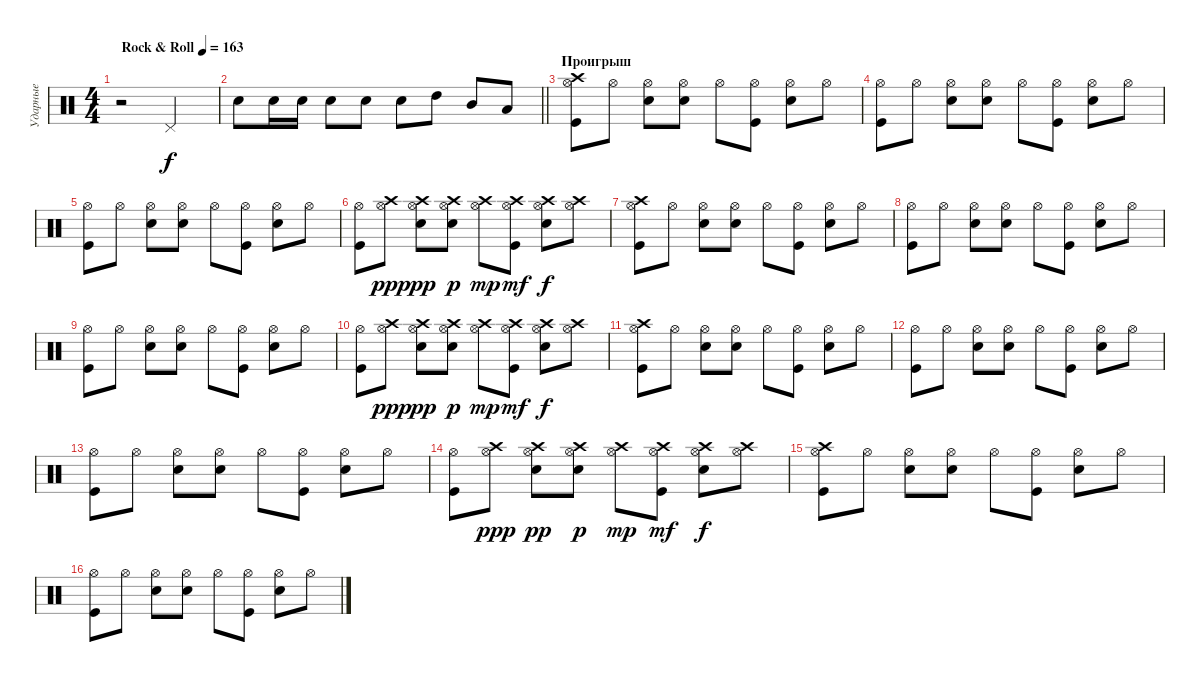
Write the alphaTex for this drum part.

\track ("Ударные" "Ударные") {instrument percussion}
\staff {score}
\articulation defaults
\ts (4 4)
\tempo (163 "Rock & Roll")
\clef neutral
\ks c
r.2{dy f} "Pedal Hi-Hat (hit)".2 |
\barLineRight lightlight "Snare (hit) 2".8 "Snare (hit) 2".16 "Snare (hit) 2".16 "Snare (hit) 2".8 "Snare (hit) 2".8 "Snare (hit) 2".8 "High Tom (hit)".8 "Mid Tom (hit)".8 "Low Tom (hit)".8
|
\section ("" "Проигрыш")
("Kick (hit)" "Hi-Hat (open)" "Crash high (hit)").8 "Hi-Hat (open)".8 ("Hi-Hat (open)" "Snare (hit) 2").8 ("Hi-Hat (open)" "Snare (hit) 2").8 "Hi-Hat (open)".8 ("Kick (hit)" "Hi-Hat (open)").8 ("Hi-Hat (open)" "Snare (hit) 2").8 "Hi-Hat (open)".8 |
("Kick (hit)" "Hi-Hat (open)").8 "Hi-Hat (open)".8 ("Hi-Hat (open)" "Snare (hit) 2").8 ("Hi-Hat (open)" "Snare (hit) 2").8 "Hi-Hat (open)".8 ("Kick (hit)" "Hi-Hat (open)").8 ("Hi-Hat (open)" "Snare (hit) 2").8 "Hi-Hat (open)".8 |
("Kick (hit)" "Hi-Hat (open)").8 "Hi-Hat (open)".8 ("Hi-Hat (open)" "Snare (hit) 2").8 ("Hi-Hat (open)" "Snare (hit) 2").8 "Hi-Hat (open)".8 ("Kick (hit)" "Hi-Hat (open)").8 ("Hi-Hat (open)" "Snare (hit) 2").8 "Hi-Hat (open)".8 |
("Kick (hit)" "Hi-Hat (open)").8 ("Hi-Hat (open)" "Crash high (hit)").8{dy ppp} ("Hi-Hat (open)" "Snare (hit) 2" "Crash high (hit)").8{dy pp} ("Hi-Hat (open)" "Snare (hit) 2" "Crash high (hit)").8{dy p} ("Hi-Hat (open)" "Crash high (hit)").8{dy mp} ("Kick (hit)" "Hi-Hat (open)" "Crash high (hit)").8{dy mf} ("Hi-Hat (open)" "Snare (hit) 2" "Crash high (hit)").8{dy f} ("Hi-Hat (open)" "Crash high (hit)").8 |
("Kick (hit)" "Hi-Hat (open)" "Crash high (hit)").8 "Hi-Hat (open)".8 ("Hi-Hat (open)" "Snare (hit) 2").8 ("Hi-Hat (open)" "Snare (hit) 2").8 "Hi-Hat (open)".8 ("Kick (hit)" "Hi-Hat (open)").8 ("Hi-Hat (open)" "Snare (hit) 2").8 "Hi-Hat (open)".8 |
("Kick (hit)" "Hi-Hat (open)").8 "Hi-Hat (open)".8 ("Hi-Hat (open)" "Snare (hit) 2").8 ("Hi-Hat (open)" "Snare (hit) 2").8 "Hi-Hat (open)".8 ("Kick (hit)" "Hi-Hat (open)").8 ("Hi-Hat (open)" "Snare (hit) 2").8 "Hi-Hat (open)".8 |
("Kick (hit)" "Hi-Hat (open)").8 "Hi-Hat (open)".8 ("Hi-Hat (open)" "Snare (hit) 2").8 ("Hi-Hat (open)" "Snare (hit) 2").8 "Hi-Hat (open)".8 ("Kick (hit)" "Hi-Hat (open)").8 ("Hi-Hat (open)" "Snare (hit) 2").8 "Hi-Hat (open)".8 |
("Kick (hit)" "Hi-Hat (open)").8 ("Hi-Hat (open)" "Crash high (hit)").8{dy ppp} ("Hi-Hat (open)" "Snare (hit) 2" "Crash high (hit)").8{dy pp} ("Hi-Hat (open)" "Snare (hit) 2" "Crash high (hit)").8{dy p} ("Hi-Hat (open)" "Crash high (hit)").8{dy mp} ("Kick (hit)" "Hi-Hat (open)" "Crash high (hit)").8{dy mf} ("Hi-Hat (open)" "Snare (hit) 2" "Crash high (hit)").8{dy f} ("Hi-Hat (open)" "Crash high (hit)").8 |
("Kick (hit)" "Hi-Hat (open)" "Crash high (hit)").8 "Hi-Hat (open)".8 ("Hi-Hat (open)" "Snare (hit) 2").8 ("Hi-Hat (open)" "Snare (hit) 2").8 "Hi-Hat (open)".8 ("Kick (hit)" "Hi-Hat (open)").8 ("Hi-Hat (open)" "Snare (hit) 2").8 "Hi-Hat (open)".8 |
("Kick (hit)" "Hi-Hat (open)").8 "Hi-Hat (open)".8 ("Hi-Hat (open)" "Snare (hit) 2").8 ("Hi-Hat (open)" "Snare (hit) 2").8 "Hi-Hat (open)".8 ("Kick (hit)" "Hi-Hat (open)").8 ("Hi-Hat (open)" "Snare (hit) 2").8 "Hi-Hat (open)".8 |
("Kick (hit)" "Hi-Hat (open)").8 "Hi-Hat (open)".8 ("Hi-Hat (open)" "Snare (hit) 2").8 ("Hi-Hat (open)" "Snare (hit) 2").8 "Hi-Hat (open)".8 ("Kick (hit)" "Hi-Hat (open)").8 ("Hi-Hat (open)" "Snare (hit) 2").8 "Hi-Hat (open)".8 |
("Kick (hit)" "Hi-Hat (open)").8 ("Hi-Hat (open)" "Crash high (hit)").8{dy ppp} ("Hi-Hat (open)" "Snare (hit) 2" "Crash high (hit)").8{dy pp} ("Hi-Hat (open)" "Snare (hit) 2" "Crash high (hit)").8{dy p} ("Hi-Hat (open)" "Crash high (hit)").8{dy mp} ("Kick (hit)" "Hi-Hat (open)" "Crash high (hit)").8{dy mf} ("Hi-Hat (open)" "Snare (hit) 2" "Crash high (hit)").8{dy f} ("Hi-Hat (open)" "Crash high (hit)").8 |
("Kick (hit)" "Hi-Hat (open)" "Crash high (hit)").8 "Hi-Hat (open)".8 ("Hi-Hat (open)" "Snare (hit) 2").8 ("Hi-Hat (open)" "Snare (hit) 2").8 "Hi-Hat (open)".8 ("Kick (hit)" "Hi-Hat (open)").8 ("Hi-Hat (open)" "Snare (hit) 2").8 "Hi-Hat (open)".8 |
("Kick (hit)" "Hi-Hat (open)").8 "Hi-Hat (open)".8 ("Hi-Hat (open)" "Snare (hit) 2").8 ("Hi-Hat (open)" "Snare (hit) 2").8 "Hi-Hat (open)".8 ("Kick (hit)" "Hi-Hat (open)").8 ("Hi-Hat (open)" "Snare (hit) 2").8 "Hi-Hat (open)".8
